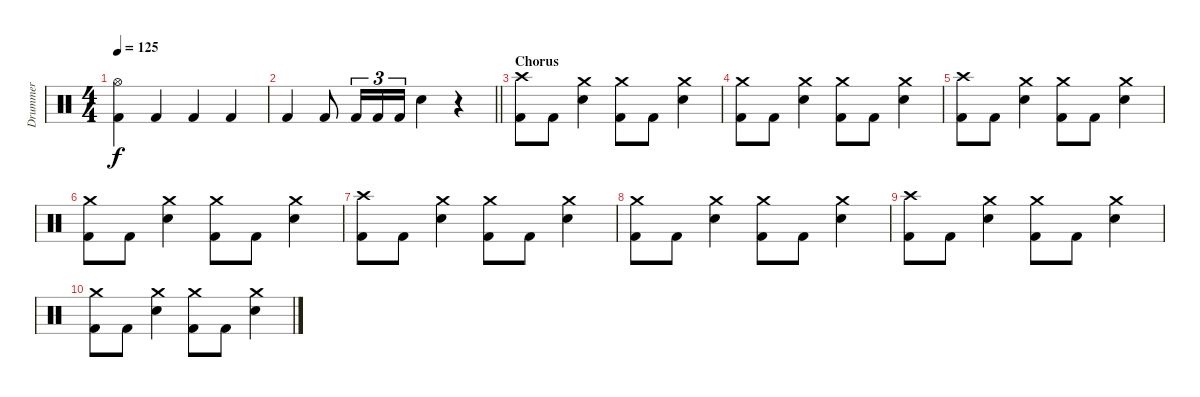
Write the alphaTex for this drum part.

\track ("Drummer" "Drummer") {instrument percussion}
\staff {score}
\articulation defaults
\ts (4 4)
\tempo 125
\clef neutral
\ks c
("Hi-Hat (open)" "Kick (hit) 2").4{dy f} "Kick (hit) 2".4 "Kick (hit) 2".4 "Kick (hit) 2".4 |
\barLineRight lightlight "Kick (hit) 2".4 "Kick (hit) 2".8 "Kick (hit) 2".16{tu (3 2)} "Kick (hit) 2".16{tu (3 2)} "Kick (hit) 2".16{tu (3 2)} "Electric Snare (hit)".4
r.4 |
\section ("" "Chorus")
("Crash high (hit)" "Kick (hit) 2").8 "Kick (hit) 2".8 ("Crash medium (hit)" "Electric Snare (hit)").4 ("Crash medium (hit)" "Kick (hit) 2").8 "Kick (hit) 2".8 ("Crash medium (hit)" "Electric Snare (hit)").4 |
("Crash medium (hit)" "Kick (hit) 2").8 "Kick (hit) 2".8 ("Crash medium (hit)" "Electric Snare (hit)").4 ("Crash medium (hit)" "Kick (hit) 2").8 "Kick (hit) 2".8 ("Crash medium (hit)" "Electric Snare (hit)").4 |
("Crash high (hit)" "Kick (hit) 2").8 "Kick (hit) 2".8 ("Crash medium (hit)" "Electric Snare (hit)").4 ("Crash medium (hit)" "Kick (hit) 2").8 "Kick (hit) 2".8 ("Crash medium (hit)" "Electric Snare (hit)").4 |
("Crash medium (hit)" "Kick (hit) 2").8 "Kick (hit) 2".8 ("Crash medium (hit)" "Electric Snare (hit)").4 ("Crash medium (hit)" "Kick (hit) 2").8 "Kick (hit) 2".8 ("Crash medium (hit)" "Electric Snare (hit)").4 |
("Crash high (hit)" "Kick (hit) 2").8 "Kick (hit) 2".8 ("Crash medium (hit)" "Electric Snare (hit)").4 ("Crash medium (hit)" "Kick (hit) 2").8 "Kick (hit) 2".8 ("Crash medium (hit)" "Electric Snare (hit)").4 |
("Crash medium (hit)" "Kick (hit) 2").8 "Kick (hit) 2".8 ("Crash medium (hit)" "Electric Snare (hit)").4 ("Crash medium (hit)" "Kick (hit) 2").8 "Kick (hit) 2".8 ("Crash medium (hit)" "Electric Snare (hit)").4 |
("Crash high (hit)" "Kick (hit) 2").8 "Kick (hit) 2".8 ("Crash medium (hit)" "Electric Snare (hit)").4 ("Crash medium (hit)" "Kick (hit) 2").8 "Kick (hit) 2".8 ("Crash medium (hit)" "Electric Snare (hit)").4 |
("Crash medium (hit)" "Kick (hit) 2").8 "Kick (hit) 2".8 ("Crash medium (hit)" "Electric Snare (hit)").4 ("Crash medium (hit)" "Kick (hit) 2").8 "Kick (hit) 2".8 ("Crash medium (hit)" "Electric Snare (hit)").4
